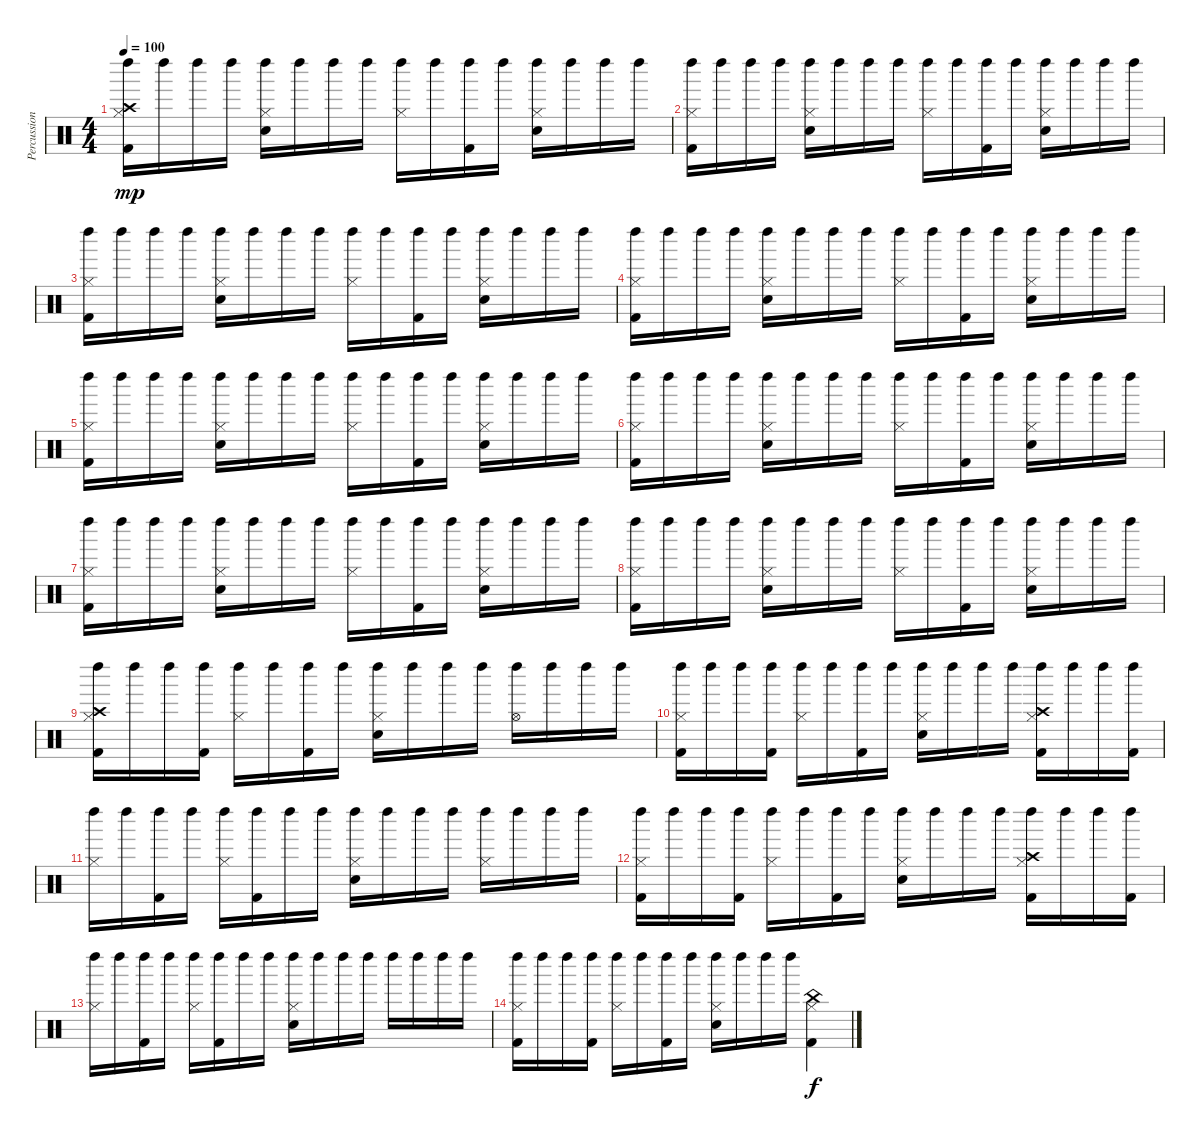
\track ("Percussion" "Percussion") {instrument percussion}
\staff {score}
\articulation defaults
\ts (4 4)
\tempo 100
\clef neutral
\ks c
("Crash high (hit)" "Hi-Hat (closed)" "Left Maraca (hit)" "Kick (hit) 2").16{dy mp} "Left Maraca (hit)".16 "Left Maraca (hit)".16 "Left Maraca (hit)".16 ("Hi-Hat (closed)" "Electric Snare (hit)" "Left Maraca (hit)").16 "Left Maraca (hit)".16 "Left Maraca (hit)".16 "Left Maraca (hit)".16 ("Hi-Hat (closed)" "Left Maraca (hit)").16 "Left Maraca (hit)".16 ("Left Maraca (hit)" "Kick (hit) 2").16 "Left Maraca (hit)".16 ("Hi-Hat (closed)" "Electric Snare (hit)" "Left Maraca (hit)").16 "Left Maraca (hit)".16 "Left Maraca (hit)".16 "Left Maraca (hit)".16 |
("Hi-Hat (closed)" "Left Maraca (hit)" "Kick (hit) 2").16 "Left Maraca (hit)".16 "Left Maraca (hit)".16 "Left Maraca (hit)".16 ("Hi-Hat (closed)" "Electric Snare (hit)" "Left Maraca (hit)").16 "Left Maraca (hit)".16 "Left Maraca (hit)".16 "Left Maraca (hit)".16 ("Hi-Hat (closed)" "Left Maraca (hit)").16 "Left Maraca (hit)".16 ("Left Maraca (hit)" "Kick (hit) 2").16 "Left Maraca (hit)".16 ("Hi-Hat (closed)" "Electric Snare (hit)" "Left Maraca (hit)").16 "Left Maraca (hit)".16 "Left Maraca (hit)".16 "Left Maraca (hit)".16 |
("Hi-Hat (closed)" "Left Maraca (hit)" "Kick (hit) 2").16 "Left Maraca (hit)".16 "Left Maraca (hit)".16 "Left Maraca (hit)".16 ("Hi-Hat (closed)" "Electric Snare (hit)" "Left Maraca (hit)").16 "Left Maraca (hit)".16 "Left Maraca (hit)".16 "Left Maraca (hit)".16 ("Hi-Hat (closed)" "Left Maraca (hit)").16 "Left Maraca (hit)".16 ("Left Maraca (hit)" "Kick (hit) 2").16 "Left Maraca (hit)".16 ("Hi-Hat (closed)" "Electric Snare (hit)" "Left Maraca (hit)").16 "Left Maraca (hit)".16 "Left Maraca (hit)".16 "Left Maraca (hit)".16 |
("Hi-Hat (closed)" "Left Maraca (hit)" "Kick (hit) 2").16 "Left Maraca (hit)".16 "Left Maraca (hit)".16 "Left Maraca (hit)".16 ("Hi-Hat (closed)" "Electric Snare (hit)" "Left Maraca (hit)").16 "Left Maraca (hit)".16 "Left Maraca (hit)".16 "Left Maraca (hit)".16 ("Hi-Hat (closed)" "Left Maraca (hit)").16 "Left Maraca (hit)".16 ("Left Maraca (hit)" "Kick (hit) 2").16 "Left Maraca (hit)".16 ("Hi-Hat (closed)" "Electric Snare (hit)" "Left Maraca (hit)").16 "Left Maraca (hit)".16 "Left Maraca (hit)".16 "Left Maraca (hit)".16 |
("Hi-Hat (closed)" "Left Maraca (hit)" "Kick (hit) 2").16 "Left Maraca (hit)".16 "Left Maraca (hit)".16 "Left Maraca (hit)".16 ("Hi-Hat (closed)" "Electric Snare (hit)" "Left Maraca (hit)").16 "Left Maraca (hit)".16 "Left Maraca (hit)".16 "Left Maraca (hit)".16 ("Hi-Hat (closed)" "Left Maraca (hit)").16 "Left Maraca (hit)".16 ("Left Maraca (hit)" "Kick (hit) 2").16 "Left Maraca (hit)".16 ("Hi-Hat (closed)" "Electric Snare (hit)" "Left Maraca (hit)").16 "Left Maraca (hit)".16 "Left Maraca (hit)".16 "Left Maraca (hit)".16 |
("Hi-Hat (closed)" "Left Maraca (hit)" "Kick (hit) 2").16 "Left Maraca (hit)".16 "Left Maraca (hit)".16 "Left Maraca (hit)".16 ("Hi-Hat (closed)" "Electric Snare (hit)" "Left Maraca (hit)").16 "Left Maraca (hit)".16 "Left Maraca (hit)".16 "Left Maraca (hit)".16 ("Hi-Hat (closed)" "Left Maraca (hit)").16 "Left Maraca (hit)".16 ("Left Maraca (hit)" "Kick (hit) 2").16 "Left Maraca (hit)".16 ("Hi-Hat (closed)" "Electric Snare (hit)" "Left Maraca (hit)").16 "Left Maraca (hit)".16 "Left Maraca (hit)".16 "Left Maraca (hit)".16 |
("Hi-Hat (closed)" "Left Maraca (hit)" "Kick (hit) 2").16 "Left Maraca (hit)".16 "Left Maraca (hit)".16 "Left Maraca (hit)".16 ("Hi-Hat (closed)" "Electric Snare (hit)" "Left Maraca (hit)").16 "Left Maraca (hit)".16 "Left Maraca (hit)".16 "Left Maraca (hit)".16 ("Hi-Hat (closed)" "Left Maraca (hit)").16 "Left Maraca (hit)".16 ("Left Maraca (hit)" "Kick (hit) 2").16 "Left Maraca (hit)".16 ("Hi-Hat (closed)" "Electric Snare (hit)" "Left Maraca (hit)").16 "Left Maraca (hit)".16 "Left Maraca (hit)".16 "Left Maraca (hit)".16 |
("Hi-Hat (closed)" "Left Maraca (hit)" "Kick (hit) 2").16 "Left Maraca (hit)".16 "Left Maraca (hit)".16 "Left Maraca (hit)".16 ("Hi-Hat (closed)" "Electric Snare (hit)" "Left Maraca (hit)").16 "Left Maraca (hit)".16 "Left Maraca (hit)".16 "Left Maraca (hit)".16 ("Hi-Hat (closed)" "Left Maraca (hit)").16 "Left Maraca (hit)".16 ("Left Maraca (hit)" "Kick (hit) 2").16 "Left Maraca (hit)".16 ("Hi-Hat (closed)" "Electric Snare (hit)" "Left Maraca (hit)").16 "Left Maraca (hit)".16 "Left Maraca (hit)".16 "Left Maraca (hit)".16 |
("Crash high (hit)" "Hi-Hat (closed)" "Left Maraca (hit)" "Kick (hit) 2").16 "Left Maraca (hit)".16 "Left Maraca (hit)".16 ("Left Maraca (hit)" "Kick (hit) 2").16 ("Hi-Hat (closed)" "Left Maraca (hit)").16 "Left Maraca (hit)".16 ("Left Maraca (hit)" "Kick (hit) 2").16 "Left Maraca (hit)".16 ("Hi-Hat (closed)" "Electric Snare (hit)" "Left Maraca (hit)").16 "Left Maraca (hit)".16 "Left Maraca (hit)".16 "Left Maraca (hit)".16 ("Hi-Hat (open)" "Left Maraca (hit)").16 "Left Maraca (hit)".16 "Left Maraca (hit)".16 "Left Maraca (hit)".16 |
("Hi-Hat (closed)" "Left Maraca (hit)" "Kick (hit) 2").16 "Left Maraca (hit)".16 "Left Maraca (hit)".16 ("Left Maraca (hit)" "Kick (hit) 2").16 ("Hi-Hat (closed)" "Left Maraca (hit)").16 "Left Maraca (hit)".16 ("Left Maraca (hit)" "Kick (hit) 2").16 "Left Maraca (hit)".16 ("Hi-Hat (closed)" "Electric Snare (hit)" "Left Maraca (hit)").16 "Left Maraca (hit)".16 "Left Maraca (hit)".16 "Left Maraca (hit)".16 ("Crash high (hit)" "Hi-Hat (closed)" "Left Maraca (hit)" "Kick (hit) 2").16 "Left Maraca (hit)".16 "Left Maraca (hit)".16 ("Left Maraca (hit)" "Kick (hit) 2").16 |
("Hi-Hat (closed)" "Left Maraca (hit)").16 "Left Maraca (hit)".16 ("Left Maraca (hit)" "Kick (hit) 2").16 "Left Maraca (hit)".16 ("Hi-Hat (closed)" "Left Maraca (hit)").16 ("Left Maraca (hit)" "Kick (hit) 2").16 "Left Maraca (hit)".16 "Left Maraca (hit)".16 ("Hi-Hat (closed)" "Electric Snare (hit)" "Left Maraca (hit)").16 "Left Maraca (hit)".16 "Left Maraca (hit)".16 "Left Maraca (hit)".16 ("Hi-Hat (closed)" "Left Maraca (hit)").16 "Left Maraca (hit)".16 "Left Maraca (hit)".16 "Left Maraca (hit)".16 |
("Hi-Hat (closed)" "Left Maraca (hit)" "Kick (hit) 2").16 "Left Maraca (hit)".16 "Left Maraca (hit)".16 ("Left Maraca (hit)" "Kick (hit) 2").16 ("Hi-Hat (closed)" "Left Maraca (hit)").16 "Left Maraca (hit)".16 ("Left Maraca (hit)" "Kick (hit) 2").16 "Left Maraca (hit)".16 ("Hi-Hat (closed)" "Electric Snare (hit)" "Left Maraca (hit)").16 "Left Maraca (hit)".16 "Left Maraca (hit)".16 "Left Maraca (hit)".16 ("Crash high (hit)" "Hi-Hat (closed)" "Left Maraca (hit)" "Kick (hit) 2").16 "Left Maraca (hit)".16 "Left Maraca (hit)".16 ("Left Maraca (hit)" "Kick (hit) 2").16 |
("Hi-Hat (closed)" "Left Maraca (hit)").16 "Left Maraca (hit)".16 ("Left Maraca (hit)" "Kick (hit) 2").16 "Left Maraca (hit)".16 ("Hi-Hat (closed)" "Left Maraca (hit)").16 ("Left Maraca (hit)" "Kick (hit) 2").16 "Left Maraca (hit)".16 "Left Maraca (hit)".16 ("Hi-Hat (closed)" "Electric Snare (hit)" "Left Maraca (hit)").16 "Left Maraca (hit)".16 "Left Maraca (hit)".16 "Left Maraca (hit)".16 "Left Maraca (hit)".16 "Left Maraca (hit)".16 "Left Maraca (hit)".16 "Left Maraca (hit)".16 |
("Hi-Hat (closed)" "Left Maraca (hit)" "Kick (hit) 2").16 "Left Maraca (hit)".16 "Left Maraca (hit)".16 ("Left Maraca (hit)" "Kick (hit) 2").16 ("Hi-Hat (closed)" "Left Maraca (hit)").16 "Left Maraca (hit)".16 ("Left Maraca (hit)" "Kick (hit) 2").16 "Left Maraca (hit)".16 ("Hi-Hat (closed)" "Electric Snare (hit)" "Left Maraca (hit)").16 "Left Maraca (hit)".16 "Left Maraca (hit)".16 "Left Maraca (hit)".16 ("China (hit)" "Hi-Hat (closed)" "Kick (hit) 2").4{dy f}
